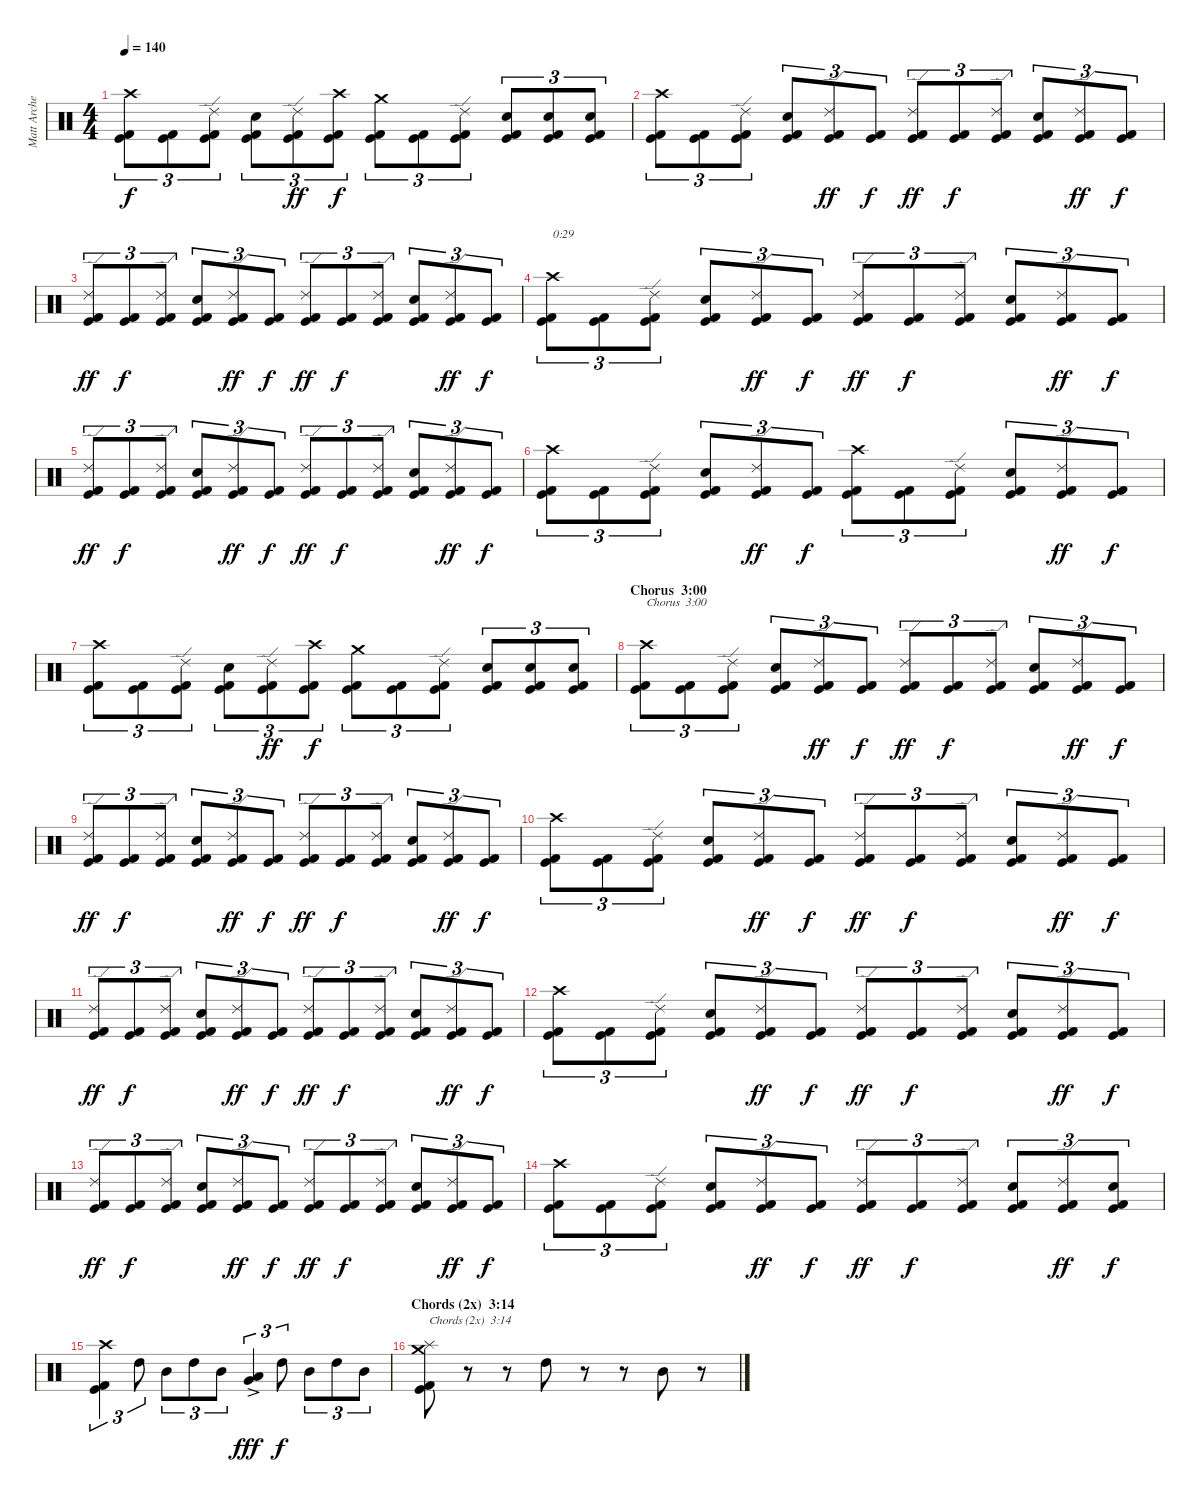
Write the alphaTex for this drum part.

\track ("Matt Archer" "Matt Arche") {instrument percussion}
\staff {score}
\articulation defaults
\ts (4 4)
\tempo 140
\clef neutral
\ks c
("Kick (hit)" "Kick (hit) 2" "Crash high (hit)").8{tu (3 2) dy f} ("Kick (hit)" "Kick (hit) 2").8{tu (3 2)} ("Kick (hit)" "Kick (hit) 2" "Ride (edge) 2").8{tu (3 2)} ("Kick (hit)" "Kick (hit) 2" "Electric Snare (hit)").8{tu (3 2)} ("Kick (hit)" "Kick (hit) 2" "Ride (edge) 2").8{tu (3 2) dy ff} ("Kick (hit)" "Kick (hit) 2" "Crash high (hit)").8{tu (3 2) dy f} ("Kick (hit)" "Kick (hit) 2" "Crash medium (hit)").8{tu (3 2)} ("Kick (hit)" "Kick (hit) 2").8{tu (3 2)} ("Kick (hit)" "Kick (hit) 2" "Ride (edge) 2").8{tu (3 2)} ("Kick (hit)" "Kick (hit) 2" "Electric Snare (hit)").8{tu (3 2)} ("Kick (hit)" "Kick (hit) 2" "Electric Snare (hit)").8{tu (3 2)} ("Kick (hit)" "Kick (hit) 2" "Electric Snare (hit)").8{tu (3 2)} |
("Kick (hit)" "Kick (hit) 2" "Crash high (hit)").8{tu (3 2)} ("Kick (hit)" "Kick (hit) 2").8{tu (3 2)} ("Kick (hit)" "Kick (hit) 2" "Ride (edge) 2").8{tu (3 2)} ("Kick (hit)" "Kick (hit) 2" "Electric Snare (hit)").8{tu (3 2)} ("Kick (hit)" "Kick (hit) 2" "Ride (edge) 2").8{tu (3 2) dy ff} ("Kick (hit)" "Kick (hit) 2").8{tu (3 2) dy f} ("Kick (hit)" "Kick (hit) 2" "Ride (edge) 2").8{tu (3 2) dy ff} ("Kick (hit)" "Kick (hit) 2").8{tu (3 2) dy f} ("Kick (hit)" "Kick (hit) 2" "Ride (edge) 2").8{tu (3 2)} ("Kick (hit)" "Kick (hit) 2" "Electric Snare (hit)").8{tu (3 2)} ("Kick (hit)" "Kick (hit) 2" "Ride (edge) 2").8{tu (3 2) dy ff} ("Kick (hit)" "Kick (hit) 2").8{tu (3 2) dy f} |
("Kick (hit)" "Kick (hit) 2" "Ride (edge) 2").8{tu (3 2) dy ff} ("Kick (hit)" "Kick (hit) 2").8{tu (3 2) dy f} ("Kick (hit)" "Kick (hit) 2" "Ride (edge) 2").8{tu (3 2)} ("Kick (hit)" "Kick (hit) 2" "Electric Snare (hit)").8{tu (3 2)} ("Kick (hit)" "Kick (hit) 2" "Ride (edge) 2").8{tu (3 2) dy ff} ("Kick (hit)" "Kick (hit) 2").8{tu (3 2) dy f} ("Kick (hit)" "Kick (hit) 2" "Ride (edge) 2").8{tu (3 2) dy ff} ("Kick (hit)" "Kick (hit) 2").8{tu (3 2) dy f} ("Kick (hit)" "Kick (hit) 2" "Ride (edge) 2").8{tu (3 2)} ("Kick (hit)" "Kick (hit) 2" "Electric Snare (hit)").8{tu (3 2)} ("Kick (hit)" "Kick (hit) 2" "Ride (edge) 2").8{tu (3 2) dy ff} ("Kick (hit)" "Kick (hit) 2").8{tu (3 2) dy f} |
("Kick (hit)" "Kick (hit) 2" "Crash high (hit)").8{tu (3 2) txt "0:29"} ("Kick (hit)" "Kick (hit) 2").8{tu (3 2)} ("Kick (hit)" "Kick (hit) 2" "Ride (edge) 2").8{tu (3 2)} ("Kick (hit)" "Kick (hit) 2" "Electric Snare (hit)").8{tu (3 2)} ("Kick (hit)" "Kick (hit) 2" "Ride (edge) 2").8{tu (3 2) dy ff} ("Kick (hit)" "Kick (hit) 2").8{tu (3 2) dy f} ("Kick (hit)" "Kick (hit) 2" "Ride (edge) 2").8{tu (3 2) dy ff} ("Kick (hit)" "Kick (hit) 2").8{tu (3 2) dy f} ("Kick (hit)" "Kick (hit) 2" "Ride (edge) 2").8{tu (3 2)} ("Kick (hit)" "Kick (hit) 2" "Electric Snare (hit)").8{tu (3 2)} ("Kick (hit)" "Kick (hit) 2" "Ride (edge) 2").8{tu (3 2) dy ff} ("Kick (hit)" "Kick (hit) 2").8{tu (3 2) dy f} |
("Kick (hit)" "Kick (hit) 2" "Ride (edge) 2").8{tu (3 2) dy ff} ("Kick (hit)" "Kick (hit) 2").8{tu (3 2) dy f} ("Kick (hit)" "Kick (hit) 2" "Ride (edge) 2").8{tu (3 2)} ("Kick (hit)" "Kick (hit) 2" "Electric Snare (hit)").8{tu (3 2)} ("Kick (hit)" "Kick (hit) 2" "Ride (edge) 2").8{tu (3 2) dy ff} ("Kick (hit)" "Kick (hit) 2").8{tu (3 2) dy f} ("Kick (hit)" "Kick (hit) 2" "Ride (edge) 2").8{tu (3 2) dy ff} ("Kick (hit)" "Kick (hit) 2").8{tu (3 2) dy f} ("Kick (hit)" "Kick (hit) 2" "Ride (edge) 2").8{tu (3 2)} ("Kick (hit)" "Kick (hit) 2" "Electric Snare (hit)").8{tu (3 2)} ("Kick (hit)" "Kick (hit) 2" "Ride (edge) 2").8{tu (3 2) dy ff} ("Kick (hit)" "Kick (hit) 2").8{tu (3 2) dy f} |
("Kick (hit)" "Kick (hit) 2" "Crash high (hit)").8{tu (3 2)} ("Kick (hit)" "Kick (hit) 2").8{tu (3 2)} ("Kick (hit)" "Kick (hit) 2" "Ride (edge) 2").8{tu (3 2)} ("Kick (hit)" "Kick (hit) 2" "Electric Snare (hit)").8{tu (3 2)} ("Kick (hit)" "Kick (hit) 2" "Ride (edge) 2").8{tu (3 2) dy ff} ("Kick (hit)" "Kick (hit) 2").8{tu (3 2) dy f} ("Kick (hit)" "Kick (hit) 2" "Crash high (hit)").8{tu (3 2)} ("Kick (hit)" "Kick (hit) 2").8{tu (3 2)} ("Kick (hit)" "Kick (hit) 2" "Ride (edge) 2").8{tu (3 2)} ("Kick (hit)" "Kick (hit) 2" "Electric Snare (hit)").8{tu (3 2)} ("Kick (hit)" "Kick (hit) 2" "Ride (edge) 2").8{tu (3 2) dy ff} ("Kick (hit)" "Kick (hit) 2").8{tu (3 2) dy f} |
("Kick (hit)" "Kick (hit) 2" "Crash high (hit)").8{tu (3 2)} ("Kick (hit)" "Kick (hit) 2").8{tu (3 2)} ("Kick (hit)" "Kick (hit) 2" "Ride (edge) 2").8{tu (3 2)} ("Kick (hit)" "Kick (hit) 2" "Electric Snare (hit)").8{tu (3 2)} ("Kick (hit)" "Kick (hit) 2" "Ride (edge) 2").8{tu (3 2) dy ff} ("Kick (hit)" "Kick (hit) 2" "Crash high (hit)").8{tu (3 2) dy f} ("Kick (hit)" "Kick (hit) 2" "Crash medium (hit)").8{tu (3 2)} ("Kick (hit)" "Kick (hit) 2").8{tu (3 2)} ("Kick (hit)" "Kick (hit) 2" "Ride (edge) 2").8{tu (3 2)} ("Kick (hit)" "Kick (hit) 2" "Electric Snare (hit)").8{tu (3 2)} ("Kick (hit)" "Kick (hit) 2" "Electric Snare (hit)").8{tu (3 2)} ("Kick (hit)" "Kick (hit) 2" "Electric Snare (hit)").8{tu (3 2)} |
\section ("" "Chorus  3:00")
("Kick (hit)" "Kick (hit) 2" "Crash high (hit)").8{tu (3 2) txt "Chorus  3:00"} ("Kick (hit)" "Kick (hit) 2").8{tu (3 2)} ("Kick (hit)" "Kick (hit) 2" "Ride (edge) 2").8{tu (3 2)} ("Kick (hit)" "Kick (hit) 2" "Electric Snare (hit)").8{tu (3 2)} ("Kick (hit)" "Kick (hit) 2" "Ride (edge) 2").8{tu (3 2) dy ff} ("Kick (hit)" "Kick (hit) 2").8{tu (3 2) dy f} ("Kick (hit)" "Kick (hit) 2" "Ride (edge) 2").8{tu (3 2) dy ff} ("Kick (hit)" "Kick (hit) 2").8{tu (3 2) dy f} ("Kick (hit)" "Kick (hit) 2" "Ride (edge) 2").8{tu (3 2)} ("Kick (hit)" "Kick (hit) 2" "Electric Snare (hit)").8{tu (3 2)} ("Kick (hit)" "Kick (hit) 2" "Ride (edge) 2").8{tu (3 2) dy ff} ("Kick (hit)" "Kick (hit) 2").8{tu (3 2) dy f} |
("Kick (hit)" "Kick (hit) 2" "Ride (edge) 2").8{tu (3 2) dy ff} ("Kick (hit)" "Kick (hit) 2").8{tu (3 2) dy f} ("Kick (hit)" "Kick (hit) 2" "Ride (edge) 2").8{tu (3 2)} ("Kick (hit)" "Kick (hit) 2" "Electric Snare (hit)").8{tu (3 2)} ("Kick (hit)" "Kick (hit) 2" "Ride (edge) 2").8{tu (3 2) dy ff} ("Kick (hit)" "Kick (hit) 2").8{tu (3 2) dy f} ("Kick (hit)" "Kick (hit) 2" "Ride (edge) 2").8{tu (3 2) dy ff} ("Kick (hit)" "Kick (hit) 2").8{tu (3 2) dy f} ("Kick (hit)" "Kick (hit) 2" "Ride (edge) 2").8{tu (3 2)} ("Kick (hit)" "Kick (hit) 2" "Electric Snare (hit)").8{tu (3 2)} ("Kick (hit)" "Kick (hit) 2" "Ride (edge) 2").8{tu (3 2) dy ff} ("Kick (hit)" "Kick (hit) 2").8{tu (3 2) dy f} |
("Kick (hit)" "Kick (hit) 2" "Crash high (hit)").8{tu (3 2)} ("Kick (hit)" "Kick (hit) 2").8{tu (3 2)} ("Kick (hit)" "Kick (hit) 2" "Ride (edge) 2").8{tu (3 2)} ("Kick (hit)" "Kick (hit) 2" "Electric Snare (hit)").8{tu (3 2)} ("Kick (hit)" "Kick (hit) 2" "Ride (edge) 2").8{tu (3 2) dy ff} ("Kick (hit)" "Kick (hit) 2").8{tu (3 2) dy f} ("Kick (hit)" "Kick (hit) 2" "Ride (edge) 2").8{tu (3 2) dy ff} ("Kick (hit)" "Kick (hit) 2").8{tu (3 2) dy f} ("Kick (hit)" "Kick (hit) 2" "Ride (edge) 2").8{tu (3 2)} ("Kick (hit)" "Kick (hit) 2" "Electric Snare (hit)").8{tu (3 2)} ("Kick (hit)" "Kick (hit) 2" "Ride (edge) 2").8{tu (3 2) dy ff} ("Kick (hit)" "Kick (hit) 2").8{tu (3 2) dy f} |
("Kick (hit)" "Kick (hit) 2" "Ride (edge) 2").8{tu (3 2) dy ff} ("Kick (hit)" "Kick (hit) 2").8{tu (3 2) dy f} ("Kick (hit)" "Kick (hit) 2" "Ride (edge) 2").8{tu (3 2)} ("Kick (hit)" "Kick (hit) 2" "Electric Snare (hit)").8{tu (3 2)} ("Kick (hit)" "Kick (hit) 2" "Ride (edge) 2").8{tu (3 2) dy ff} ("Kick (hit)" "Kick (hit) 2").8{tu (3 2) dy f} ("Kick (hit)" "Kick (hit) 2" "Ride (edge) 2").8{tu (3 2) dy ff} ("Kick (hit)" "Kick (hit) 2").8{tu (3 2) dy f} ("Kick (hit)" "Kick (hit) 2" "Ride (edge) 2").8{tu (3 2)} ("Kick (hit)" "Kick (hit) 2" "Electric Snare (hit)").8{tu (3 2)} ("Kick (hit)" "Kick (hit) 2" "Ride (edge) 2").8{tu (3 2) dy ff} ("Kick (hit)" "Kick (hit) 2").8{tu (3 2) dy f} |
("Kick (hit)" "Kick (hit) 2" "Crash high (hit)").8{tu (3 2)} ("Kick (hit)" "Kick (hit) 2").8{tu (3 2)} ("Kick (hit)" "Kick (hit) 2" "Ride (edge) 2").8{tu (3 2)} ("Kick (hit)" "Kick (hit) 2" "Electric Snare (hit)").8{tu (3 2)} ("Kick (hit)" "Kick (hit) 2" "Ride (edge) 2").8{tu (3 2) dy ff} ("Kick (hit)" "Kick (hit) 2").8{tu (3 2) dy f} ("Kick (hit)" "Kick (hit) 2" "Ride (edge) 2").8{tu (3 2) dy ff} ("Kick (hit)" "Kick (hit) 2").8{tu (3 2) dy f} ("Kick (hit)" "Kick (hit) 2" "Ride (edge) 2").8{tu (3 2)} ("Kick (hit)" "Kick (hit) 2" "Electric Snare (hit)").8{tu (3 2)} ("Kick (hit)" "Kick (hit) 2" "Ride (edge) 2").8{tu (3 2) dy ff} ("Kick (hit)" "Kick (hit) 2").8{tu (3 2) dy f} |
("Kick (hit)" "Kick (hit) 2" "Ride (edge) 2").8{tu (3 2) dy ff} ("Kick (hit)" "Kick (hit) 2").8{tu (3 2) dy f} ("Kick (hit)" "Kick (hit) 2" "Ride (edge) 2").8{tu (3 2)} ("Kick (hit)" "Kick (hit) 2" "Electric Snare (hit)").8{tu (3 2)} ("Kick (hit)" "Kick (hit) 2" "Ride (edge) 2").8{tu (3 2) dy ff} ("Kick (hit)" "Kick (hit) 2").8{tu (3 2) dy f} ("Kick (hit)" "Kick (hit) 2" "Ride (edge) 2").8{tu (3 2) dy ff} ("Kick (hit)" "Kick (hit) 2").8{tu (3 2) dy f} ("Kick (hit)" "Kick (hit) 2" "Ride (edge) 2").8{tu (3 2)} ("Kick (hit)" "Kick (hit) 2" "Electric Snare (hit)").8{tu (3 2)} ("Kick (hit)" "Kick (hit) 2" "Ride (edge) 2").8{tu (3 2) dy ff} ("Kick (hit)" "Kick (hit) 2").8{tu (3 2) dy f} |
("Kick (hit)" "Kick (hit) 2" "Crash high (hit)").8{tu (3 2)} ("Kick (hit)" "Kick (hit) 2").8{tu (3 2)} ("Kick (hit)" "Kick (hit) 2" "Ride (edge) 2").8{tu (3 2)} ("Kick (hit)" "Kick (hit) 2" "Electric Snare (hit)").8{tu (3 2)} ("Kick (hit)" "Kick (hit) 2" "Ride (edge) 2").8{tu (3 2) dy ff} ("Kick (hit)" "Kick (hit) 2").8{tu (3 2) dy f} ("Kick (hit)" "Kick (hit) 2" "Ride (edge) 2").8{tu (3 2) dy ff} ("Kick (hit)" "Kick (hit) 2").8{tu (3 2) dy f} ("Kick (hit)" "Kick (hit) 2" "Ride (edge) 2").8{tu (3 2)} ("Kick (hit)" "Kick (hit) 2" "Electric Snare (hit)").8{tu (3 2)} ("Kick (hit)" "Kick (hit) 2" "Ride (edge) 2").8{tu (3 2) dy ff} ("Kick (hit)" "Kick (hit) 2" "Electric Snare (hit)").8{tu (3 2) dy f} |
("Kick (hit)" "Kick (hit) 2" "Crash high (hit)").4{tu (3 2)} "High Tom (hit)".8{tu (3 2)} "Mid Tom (hit)".8{tu (3 2)} "High Tom (hit)".8{tu (3 2)} "Mid Tom (hit)".8{tu (3 2)} ("Very Low Tom (hit)"{ac} "Low Tom (hit)"{ac}).4{tu (3 2) dy fff} "High Tom (hit)".8{tu (3 2) dy f} "Mid Tom (hit)".8{tu (3 2)} "High Tom (hit)".8{tu (3 2)} "Mid Tom (hit)".8{tu (3 2)} |
\section ("" "Chords (2x)  3:14")
("Kick (hit)" "Kick (hit) 2" "Crash medium (hit)" "Splash (hit)").8{txt "Chords (2x)  3:14"} r.8 r.8 "High Tom (hit)".8 r.8 r.8 "Mid Tom (hit)".8 r.8
